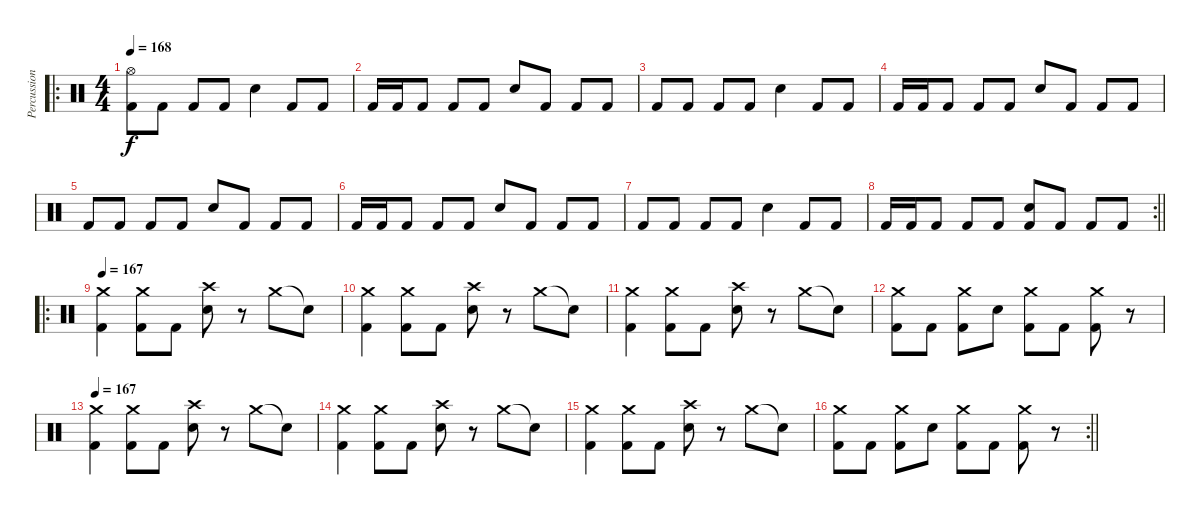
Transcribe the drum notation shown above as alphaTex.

\track ("Percussion" "Percussion") {instrument percussion}
\staff {score}
\articulation defaults
\ro
\ts (4 4)
\section ("" "")
\tempo 168
\clef neutral
\ks c
("Hi-Hat (open)" "Kick (hit) 2").8{dy f} "Kick (hit) 2".8 "Kick (hit) 2".8 "Kick (hit) 2".8 "Electric Snare (hit)".4 "Kick (hit) 2".8 "Kick (hit) 2".8 |
"Kick (hit) 2".16 "Kick (hit) 2".16 "Kick (hit) 2".8 "Kick (hit) 2".8 "Kick (hit) 2".8 "Electric Snare (hit)".8 "Kick (hit) 2".8 "Kick (hit) 2".8 "Kick (hit) 2".8 |
"Kick (hit) 2".8 "Kick (hit) 2".8 "Kick (hit) 2".8 "Kick (hit) 2".8 "Electric Snare (hit)".4 "Kick (hit) 2".8 "Kick (hit) 2".8 |
"Kick (hit) 2".16 "Kick (hit) 2".16 "Kick (hit) 2".8 "Kick (hit) 2".8 "Kick (hit) 2".8 "Electric Snare (hit)".8 "Kick (hit) 2".8 "Kick (hit) 2".8 "Kick (hit) 2".8 |
"Kick (hit) 2".8 "Kick (hit) 2".8 "Kick (hit) 2".8 "Kick (hit) 2".8 "Electric Snare (hit)".8 "Kick (hit) 2".8 "Kick (hit) 2".8 "Kick (hit) 2".8 |
"Kick (hit) 2".16 "Kick (hit) 2".16 "Kick (hit) 2".8 "Kick (hit) 2".8 "Kick (hit) 2".8 "Electric Snare (hit)".8 "Kick (hit) 2".8 "Kick (hit) 2".8 "Kick (hit) 2".8 |
"Kick (hit) 2".8 "Kick (hit) 2".8 "Kick (hit) 2".8 "Kick (hit) 2".8 "Electric Snare (hit)".4 "Kick (hit) 2".8 "Kick (hit) 2".8 |
\rc 2
\barLineRight lightlight "Kick (hit) 2".16 "Kick (hit) 2".16 "Kick (hit) 2".8 "Kick (hit) 2".8 "Kick (hit) 2".8
("Electric Snare (hit)" "Kick (hit) 2").8 "Kick (hit) 2".8 "Kick (hit) 2".8 "Kick (hit) 2".8 |
\ro
\section ("" "")
\tempo 167
("Crash medium (hit)" "Kick (hit) 2").4 ("Crash medium (hit)" "Kick (hit) 2").8 "Kick (hit) 2".8 ("Crash high (hit)" "Electric Snare (hit)").8 r.8 "Crash medium (hit)".8 "Snare (hit)"{t}.8 |
("Crash medium (hit)" "Kick (hit) 2").4 ("Crash medium (hit)" "Kick (hit) 2").8 "Kick (hit) 2".8 ("Crash high (hit)" "Electric Snare (hit)").8 r.8 "Crash medium (hit)".8 "Snare (hit)"{t}.8 |
("Crash medium (hit)" "Kick (hit) 2").4 ("Crash medium (hit)" "Kick (hit) 2").8 "Kick (hit) 2".8 ("Crash high (hit)" "Electric Snare (hit)").8 r.8 "Crash medium (hit)".8 "Snare (hit)"{t}.8 |
("Crash medium (hit)" "Kick (hit) 2").8 "Kick (hit) 2".8 ("Crash medium (hit)" "Kick (hit) 2").8 "Electric Snare (hit)".8 ("Crash medium (hit)" "Kick (hit) 2").8 "Kick (hit) 2".8 ("Crash medium (hit)" "Kick (hit) 2").8 r.8 |
\tempo 167
("Crash medium (hit)" "Kick (hit) 2").4 ("Crash medium (hit)" "Kick (hit) 2").8 "Kick (hit) 2".8 ("Crash high (hit)" "Electric Snare (hit)").8 r.8 "Crash medium (hit)".8 "Snare (hit)"{t}.8 |
("Crash medium (hit)" "Kick (hit) 2").4 ("Crash medium (hit)" "Kick (hit) 2").8 "Kick (hit) 2".8 ("Crash high (hit)" "Electric Snare (hit)").8 r.8 "Crash medium (hit)".8 "Snare (hit)"{t}.8 |
("Crash medium (hit)" "Kick (hit) 2").4 ("Crash medium (hit)" "Kick (hit) 2").8 "Kick (hit) 2".8 ("Crash high (hit)" "Electric Snare (hit)").8 r.8 "Crash medium (hit)".8 "Snare (hit)"{t}.8 |
\rc 2
\barLineRight lightlight
("Crash medium (hit)" "Kick (hit) 2").8 "Kick (hit) 2".8 ("Crash medium (hit)" "Kick (hit) 2").8 "Electric Snare (hit)".8 ("Crash medium (hit)" "Kick (hit) 2").8 "Kick (hit) 2".8 ("Crash medium (hit)" "Kick (hit) 2").8 r.8
